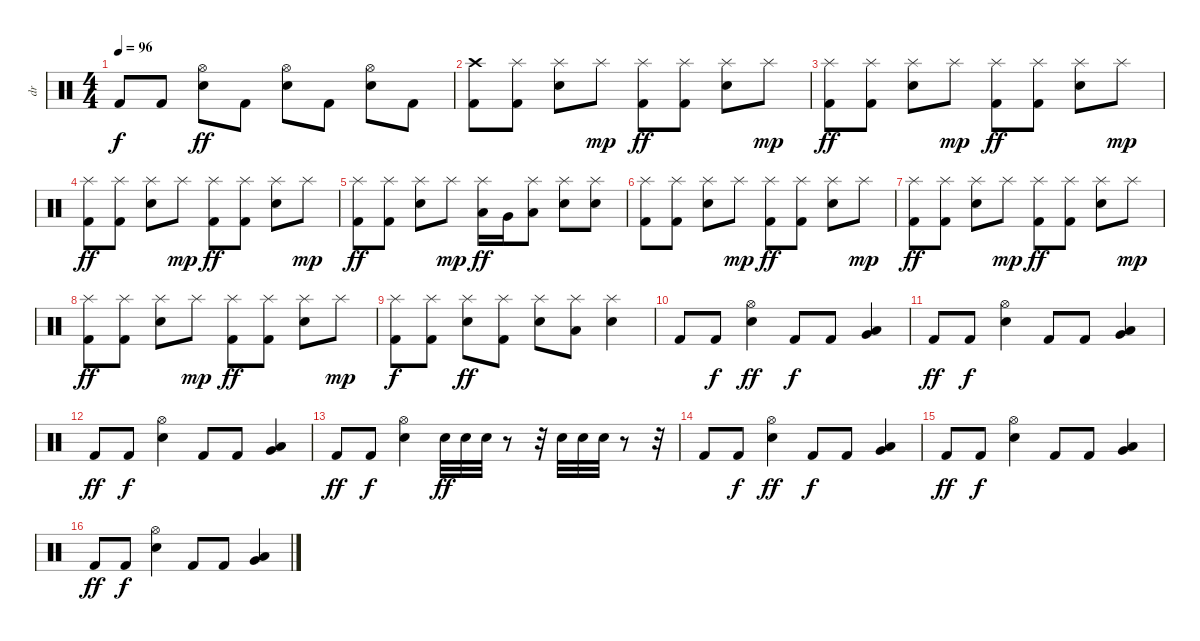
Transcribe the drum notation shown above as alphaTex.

\track ("dr" "dr") {instrument percussion}
\staff {score}
\articulation defaults
\ts (4 4)
\tempo 96
\clef neutral
\ks c "Kick (hit) 2".8{dy f} "Kick (hit) 2".8
("Hi-Hat (open)" "Electric Snare (hit)").8{dy ff} "Kick (hit) 2".8 ("Hi-Hat (open)" "Electric Snare (hit)").8 "Kick (hit) 2".8 ("Hi-Hat (open)" "Electric Snare (hit)").8 "Kick (hit) 2".8 |
("Crash high (hit)" "Kick (hit) 2").8 ("Splash (hit)" "Kick (hit) 2").8 ("Splash (hit)" "Electric Snare (hit)").8 "Splash (hit)".8{dy mp} ("Splash (hit)" "Kick (hit) 2").8{dy ff} ("Splash (hit)" "Kick (hit) 2").8 ("Splash (hit)" "Electric Snare (hit)").8 "Splash (hit)".8{dy mp} |
("Splash (hit)" "Kick (hit) 2").8{dy ff} ("Splash (hit)" "Kick (hit) 2").8 ("Splash (hit)" "Electric Snare (hit)").8 "Splash (hit)".8{dy mp} ("Splash (hit)" "Kick (hit) 2").8{dy ff} ("Splash (hit)" "Kick (hit) 2").8 ("Splash (hit)" "Electric Snare (hit)").8 "Splash (hit)".8{dy mp} |
("Splash (hit)" "Kick (hit) 2").8{dy ff} ("Splash (hit)" "Kick (hit) 2").8 ("Splash (hit)" "Electric Snare (hit)").8 "Splash (hit)".8{dy mp} ("Splash (hit)" "Kick (hit) 2").8{dy ff} ("Splash (hit)" "Kick (hit) 2").8 ("Splash (hit)" "Electric Snare (hit)").8 "Splash (hit)".8{dy mp} |
("Splash (hit)" "Kick (hit) 2").8{dy ff} ("Splash (hit)" "Kick (hit) 2").8 ("Splash (hit)" "Electric Snare (hit)").8 "Splash (hit)".8{dy mp} ("Splash (hit)" "Low Floor Tom (hit)").16{dy ff} "Very Low Tom (hit)".16 ("Splash (hit)" "Low Floor Tom (hit)").8 ("Splash (hit)" "Electric Snare (hit)").8 ("Splash (hit)" "Electric Snare (hit)").8 |
("Splash (hit)" "Kick (hit) 2").8 ("Splash (hit)" "Kick (hit) 2").8 ("Splash (hit)" "Electric Snare (hit)").8 "Splash (hit)".8{dy mp} ("Splash (hit)" "Kick (hit) 2").8{dy ff} ("Splash (hit)" "Kick (hit) 2").8 ("Splash (hit)" "Electric Snare (hit)").8 "Splash (hit)".8{dy mp} |
("Splash (hit)" "Kick (hit) 2").8{dy ff} ("Splash (hit)" "Kick (hit) 2").8 ("Splash (hit)" "Electric Snare (hit)").8 "Splash (hit)".8{dy mp} ("Splash (hit)" "Kick (hit) 2").8{dy ff} ("Splash (hit)" "Kick (hit) 2").8 ("Splash (hit)" "Electric Snare (hit)").8 "Splash (hit)".8{dy mp} |
("Splash (hit)" "Kick (hit) 2").8{dy ff} ("Splash (hit)" "Kick (hit) 2").8 ("Splash (hit)" "Electric Snare (hit)").8 "Splash (hit)".8{dy mp} ("Splash (hit)" "Kick (hit) 2").8{dy ff} ("Splash (hit)" "Kick (hit) 2").8 ("Splash (hit)" "Electric Snare (hit)").8 "Splash (hit)".8{dy mp} |
("Splash (hit)" "Kick (hit) 2").8{dy f} ("Splash (hit)" "Kick (hit) 2").8 ("Splash (hit)" "Electric Snare (hit)").8{dy ff} ("Splash (hit)" "Kick (hit) 2").8 ("Splash (hit)" "Electric Snare (hit)").8 ("Splash (hit)" "Low Floor Tom (hit)").8 ("Splash (hit)" "Electric Snare (hit)").4 |
"Kick (hit) 2".8 "Kick (hit) 2".8{dy f} ("Hi-Hat (open)" "Electric Snare (hit)").4{dy ff} "Kick (hit) 2".8{dy f} "Kick (hit) 2".8 ("Low Tom (hit)" "Very Low Tom (hit)").4 |
"Kick (hit) 2".8{dy ff} "Kick (hit) 2".8{dy f} ("Hi-Hat (open)" "Electric Snare (hit)").4 "Kick (hit) 2".8 "Kick (hit) 2".8 ("Low Tom (hit)" "Very Low Tom (hit)").4 |
"Kick (hit) 2".8{dy ff} "Kick (hit) 2".8{dy f} ("Hi-Hat (open)" "Electric Snare (hit)").4 "Kick (hit) 2".8 "Kick (hit) 2".8 ("Low Tom (hit)" "Very Low Tom (hit)").4 |
"Kick (hit) 2".8{dy ff} "Kick (hit) 2".8{dy f} ("Hi-Hat (open)" "Electric Snare (hit)").4 "Electric Snare (hit)".32{dy ff} "Electric Snare (hit)".32 "Electric Snare (hit)".32 r.8 r.32 "Electric Snare (hit)".32 "Electric Snare (hit)".32 "Electric Snare (hit)".32 r.8 r.32 |
"Kick (hit) 2".8 "Kick (hit) 2".8{dy f} ("Hi-Hat (open)" "Electric Snare (hit)").4{dy ff} "Kick (hit) 2".8{dy f} "Kick (hit) 2".8 ("Low Tom (hit)" "Very Low Tom (hit)").4 |
"Kick (hit) 2".8{dy ff} "Kick (hit) 2".8{dy f} ("Hi-Hat (open)" "Electric Snare (hit)").4 "Kick (hit) 2".8 "Kick (hit) 2".8 ("Low Tom (hit)" "Very Low Tom (hit)").4 |
"Kick (hit) 2".8{dy ff} "Kick (hit) 2".8{dy f} ("Hi-Hat (open)" "Electric Snare (hit)").4 "Kick (hit) 2".8 "Kick (hit) 2".8 ("Low Tom (hit)" "Very Low Tom (hit)").4
